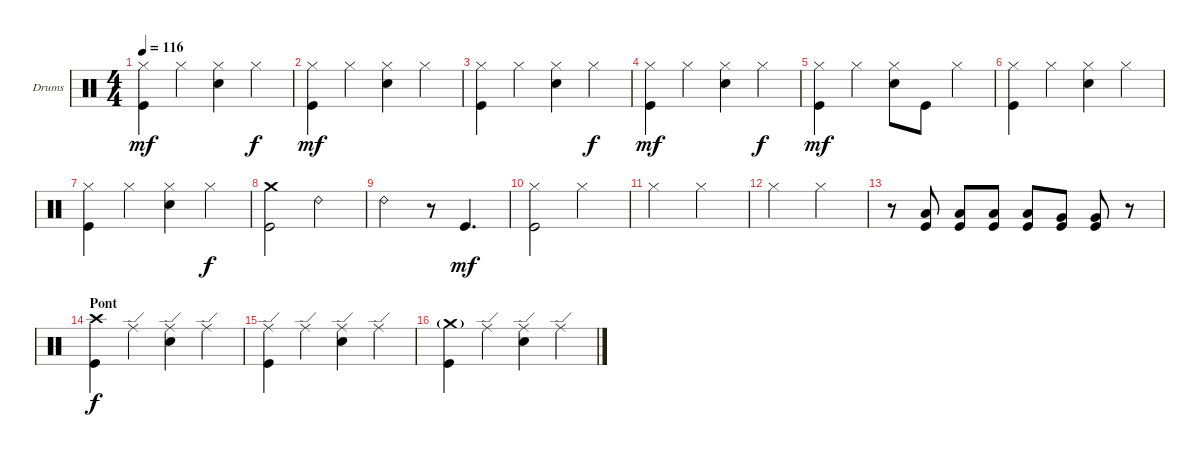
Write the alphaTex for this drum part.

\bracketExtendMode groupsimilarinstruments
\firstSystemTrackNameOrientation horizontal
\otherSystemsTrackNameOrientation horizontal
\track ("Nick Mason" "Drums") {multiBarRest instrument percussion}
\staff {score}
\articulation defaults
\ts (4 4)
\tempo 116
\clef neutral
\ks c
("Hi-Hat (closed)" "Kick (hit)").4{dy mf} "Hi-Hat (closed)".4 ("Hi-Hat (closed)" "Snare (hit) 2").4 "Hi-Hat (closed)".4{dy f} |
("Hi-Hat (closed)" "Kick (hit)").4{dy mf} "Hi-Hat (closed)".4 ("Hi-Hat (closed)" "Snare (hit) 2").4 "Hi-Hat (closed)".4 |
("Hi-Hat (closed)" "Kick (hit)").4 "Hi-Hat (closed)".4 ("Hi-Hat (closed)" "Snare (hit) 2").4 "Hi-Hat (closed)".4{dy f} |
("Hi-Hat (closed)" "Kick (hit)").4{dy mf} "Hi-Hat (closed)".4 ("Hi-Hat (closed)" "Snare (hit) 2").4 "Hi-Hat (closed)".4{dy f} |
("Hi-Hat (closed)" "Kick (hit)").4{dy mf} "Hi-Hat (closed)".4 ("Hi-Hat (closed)" "Snare (hit) 2").8 "Kick (hit)".8 "Hi-Hat (closed)".4 |
("Hi-Hat (closed)" "Kick (hit)").4 "Hi-Hat (closed)".4 ("Hi-Hat (closed)" "Snare (hit) 2").4 "Hi-Hat (closed)".4 |
("Hi-Hat (closed)" "Kick (hit)").4 "Hi-Hat (closed)".4 ("Hi-Hat (closed)" "Snare (hit) 2").4 "Hi-Hat (closed)".4{dy f} |
("Crash medium (hit)" "Kick (hit)").2 "Ride (bell) 2".2 |
"Ride (bell) 2".2 r.8 "Kick (hit)".4{d dy mf} |
("Hi-Hat (closed)" "Kick (hit)").2 "Hi-Hat (closed)".2 |
"Hi-Hat (closed)".2 "Hi-Hat (closed)".2 |
"Hi-Hat (closed)".2 "Hi-Hat (closed)".2 |
r.8 ("Low Tom (hit)" "Kick (hit)").8 ("Low Tom (hit)" "Kick (hit)").8 ("Low Tom (hit)" "Kick (hit)").8 ("Low Tom (hit)" "Kick (hit)").8 ("Very Low Tom (hit)" "Kick (hit)").8 ("Very Low Tom (hit)" "Kick (hit)").8 r.8 |
\section ("" "Pont")
("Crash high (hit)" "Kick (hit)").4{dy f} "Ride (edge)".4 ("Ride (edge)" "Snare (hit) 2").4 "Ride (edge)".4 |
("Ride (edge)" "Kick (hit)").4 "Ride (edge)".4 ("Ride (edge)" "Snare (hit) 2").4 "Ride (edge)".4 |
("Crash medium (hit)"{g} "Kick (hit)").4 "Ride (edge)".4 ("Ride (edge)" "Snare (hit) 2").4 "Ride (edge)".4
